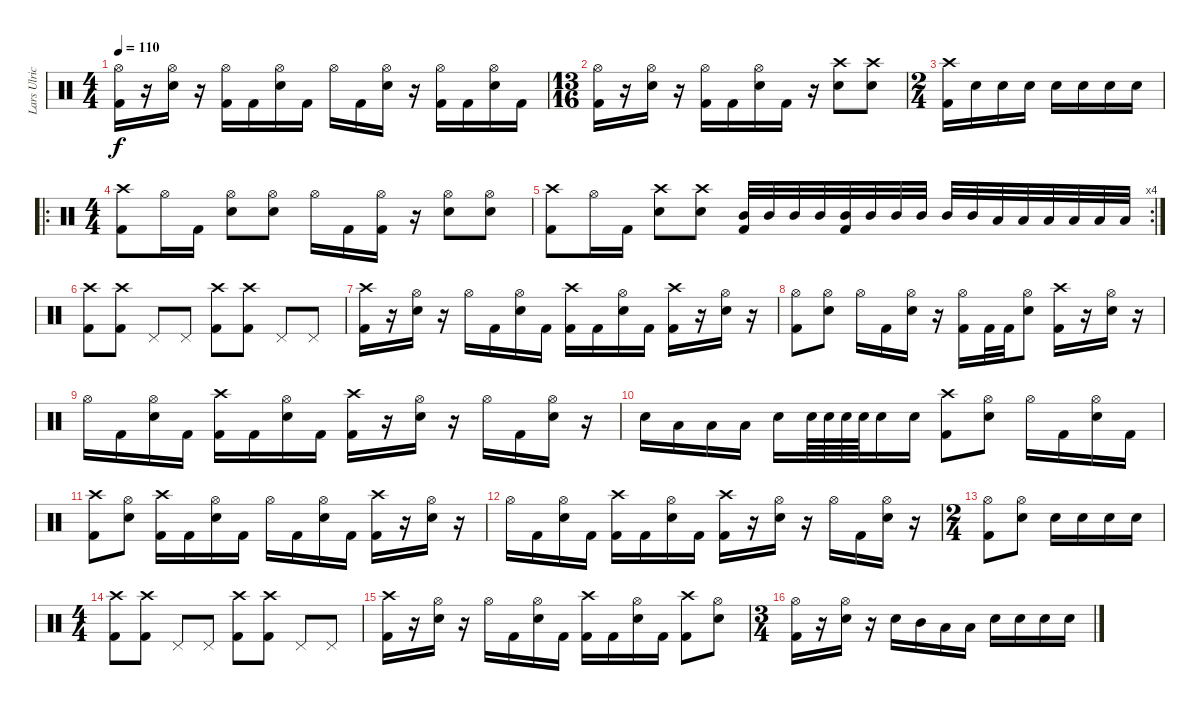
\track ("Lars Ulrich" "Lars Ulric") {instrument percussion}
\staff {score}
\articulation defaults
\ts (4 4)
\tempo 110
\clef neutral
\ks c
("Hi-Hat (open)" "Kick (hit) 2").16{dy f} r.16 ("Hi-Hat (open)" "Snare (hit) 2").16 r.16 ("Hi-Hat (open)" "Kick (hit) 2").16 "Kick (hit) 2".16 ("Hi-Hat (open)" "Snare (hit) 2").16 "Kick (hit) 2".16 "Hi-Hat (open)".16 "Kick (hit) 2".16 ("Hi-Hat (open)" "Snare (hit) 2").16 r.16 ("Hi-Hat (open)" "Kick (hit) 2").16 "Kick (hit) 2".16 ("Hi-Hat (open)" "Snare (hit) 2").16 "Kick (hit) 2".16 |
\ts (13 16)
("Hi-Hat (open)" "Kick (hit) 2").16 r.16 ("Hi-Hat (open)" "Snare (hit) 2").16 r.16 ("Hi-Hat (open)" "Kick (hit) 2").16 "Kick (hit) 2".16 ("Hi-Hat (open)" "Snare (hit) 2").16 "Kick (hit) 2".16 r.16 ("Crash high (hit)" "Snare (hit) 2").8 ("Crash high (hit)" "Snare (hit) 2").8 |
\ts (2 4)
("Crash high (hit)" "Kick (hit) 2").16 "Snare (hit) 2".16 "Snare (hit) 2".16 "Snare (hit) 2".16 "Snare (hit) 2".16 "Snare (hit) 2".16 "Snare (hit) 2".16 "Snare (hit) 2".16 |
\ro
\ts (4 4)
("Crash high (hit)" "Kick (hit) 2").8 "Hi-Hat (open)".16 "Kick (hit) 2".16 ("Hi-Hat (open)" "Snare (hit) 2").8 ("Hi-Hat (open)" "Snare (hit) 2").8 "Hi-Hat (open)".16 "Kick (hit) 2".16 ("Hi-Hat (open)" "Kick (hit) 2").16 r.16 ("Hi-Hat (open)" "Snare (hit) 2").8 ("Hi-Hat (open)" "Snare (hit) 2").8 |
\rc 4
("Crash high (hit)" "Kick (hit) 2").8 "Hi-Hat (open)".16 "Kick (hit) 2".16 ("Crash high (hit)" "Snare (hit) 2").8 ("Crash high (hit)" "Snare (hit) 2").8 ("Mid Tom (hit)" "Kick (hit) 2").32 "Mid Tom (hit)".32 "Mid Tom (hit)".32 "Mid Tom (hit)".32 ("Mid Tom (hit)" "Kick (hit) 2").32 "Mid Tom (hit)".32 "Mid Tom (hit)".32 "Mid Tom (hit)".32 "Mid Tom (hit)".32 "Mid Tom (hit)".32 "Low Tom (hit)".32 "Low Tom (hit)".32 "Low Tom (hit)".32 "Low Tom (hit)".32 "Low Tom (hit)".32 "Low Tom (hit)".32 |
("Crash high (hit)" "Kick (hit) 2").8 ("Crash high (hit)" "Kick (hit) 2").8 "Pedal Hi-Hat (hit)".8 "Pedal Hi-Hat (hit)".8 ("Crash high (hit)" "Kick (hit) 2").8 ("Crash high (hit)" "Kick (hit) 2").8 "Pedal Hi-Hat (hit)".8 "Pedal Hi-Hat (hit)".8 |
("Crash high (hit)" "Kick (hit) 2").16 r.16 ("Hi-Hat (open)" "Snare (hit) 2").16 r.16 "Hi-Hat (open)".16 "Kick (hit) 2".16 ("Hi-Hat (open)" "Snare (hit) 2").16 "Kick (hit) 2".16 ("Crash high (hit)" "Kick (hit) 2").16 "Kick (hit) 2".16 ("Hi-Hat (open)" "Snare (hit) 2").16 "Kick (hit) 2".16 ("Crash high (hit)" "Kick (hit) 2").16 r.16 ("Hi-Hat (open)" "Snare (hit) 2").16 r.16 |
("Hi-Hat (open)" "Kick (hit) 2").8 ("Hi-Hat (open)" "Snare (hit) 2").8 "Hi-Hat (open)".16 "Kick (hit) 2".16 ("Hi-Hat (open)" "Snare (hit) 2").16 r.16 ("Hi-Hat (open)" "Kick (hit) 2").16 "Kick (hit) 2".32 "Kick (hit) 2".32 ("Hi-Hat (open)" "Snare (hit) 2").8 ("Crash high (hit)" "Kick (hit) 2").16 r.16 ("Hi-Hat (open)" "Snare (hit) 2").16 r.16 |
"Hi-Hat (open)".16 "Kick (hit) 2".16 ("Hi-Hat (open)" "Snare (hit) 2").16 "Kick (hit) 2".16 ("Crash high (hit)" "Kick (hit) 2").16 "Kick (hit) 2".16 ("Hi-Hat (open)" "Snare (hit) 2").16 "Kick (hit) 2".16 ("Crash high (hit)" "Kick (hit) 2").16 r.16 ("Hi-Hat (open)" "Snare (hit) 2").16 r.16 "Hi-Hat (open)".16 "Kick (hit) 2".16 ("Hi-Hat (open)" "Snare (hit) 2").16 r.16 |
"Snare (hit) 2".16 "Low Tom (hit)".16 "Low Tom (hit)".16 "Low Tom (hit)".16 "Snare (hit) 2".16 "Snare (hit) 2".64 "Snare (hit) 2".64 "Snare (hit) 2".64 "Snare (hit) 2".64 "Snare (hit) 2".16 "Snare (hit) 2".16 ("Crash high (hit)" "Kick (hit) 2").8 ("Hi-Hat (open)" "Snare (hit) 2").8 "Hi-Hat (open)".16 "Kick (hit) 2".16 ("Hi-Hat (open)" "Snare (hit) 2").16 "Kick (hit) 2".16 |
("Crash high (hit)" "Kick (hit) 2").8 ("Hi-Hat (open)" "Snare (hit) 2").8 ("Crash high (hit)" "Kick (hit) 2").16 "Kick (hit) 2".16 ("Hi-Hat (open)" "Snare (hit) 2").16 "Kick (hit) 2".16 "Hi-Hat (open)".16 "Kick (hit) 2".16 ("Hi-Hat (open)" "Snare (hit) 2").16 "Kick (hit) 2".16 ("Crash high (hit)" "Kick (hit) 2").16 r.16 ("Hi-Hat (open)" "Snare (hit) 2").16 r.16 |
"Hi-Hat (open)".16 "Kick (hit) 2".16 ("Hi-Hat (open)" "Snare (hit) 2").16 "Kick (hit) 2".16 ("Crash high (hit)" "Kick (hit) 2").16 "Kick (hit) 2".16 ("Hi-Hat (open)" "Snare (hit) 2").16 "Kick (hit) 2".16 ("Crash high (hit)" "Kick (hit) 2").16 r.16 ("Hi-Hat (open)" "Snare (hit) 2").16 r.16 "Hi-Hat (open)".16 "Kick (hit) 2".16 ("Hi-Hat (open)" "Snare (hit) 2").16 r.16 |
\ts (2 4)
("Hi-Hat (open)" "Kick (hit) 2").8 ("Hi-Hat (open)" "Snare (hit) 2").8 "Snare (hit) 2".16 "Snare (hit) 2".16 "Snare (hit) 2".16 "Snare (hit) 2".16 |
\ts (4 4)
("Crash high (hit)" "Kick (hit) 2").8 ("Crash high (hit)" "Kick (hit) 2").8 "Pedal Hi-Hat (hit)".8 "Pedal Hi-Hat (hit)".8 ("Crash high (hit)" "Kick (hit) 2").8 ("Crash high (hit)" "Kick (hit) 2").8 "Pedal Hi-Hat (hit)".8 "Pedal Hi-Hat (hit)".8 |
("Crash high (hit)" "Kick (hit) 2").16 r.16 ("Hi-Hat (open)" "Snare (hit) 2").16 r.16 "Hi-Hat (open)".16 "Kick (hit) 2".16 ("Hi-Hat (open)" "Snare (hit) 2").16 "Kick (hit) 2".16 ("Crash high (hit)" "Kick (hit) 2").16 "Kick (hit) 2".16 ("Hi-Hat (open)" "Snare (hit) 2").16 "Kick (hit) 2".16 ("Crash high (hit)" "Kick (hit) 2").8 ("Hi-Hat (open)" "Snare (hit) 2").8 |
\ts (3 4)
("Hi-Hat (open)" "Kick (hit) 2").16 r.16 ("Hi-Hat (open)" "Snare (hit) 2").16 r.16 "Snare (hit) 2".16 "Mid Tom (hit)".16 "Low Tom (hit)".16 "Low Tom (hit)".16 "Snare (hit) 2".16 "Snare (hit) 2".16 "Snare (hit) 2".16 "Snare (hit) 2".16
